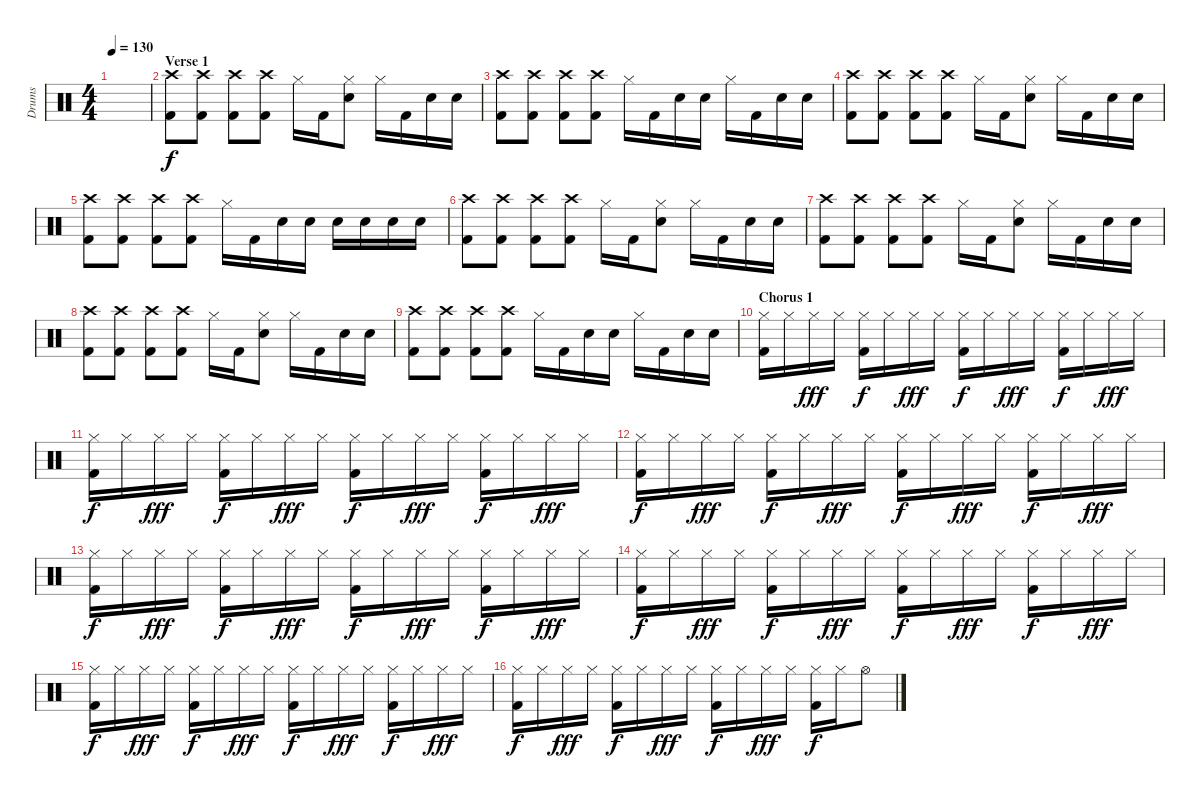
\track ("Drums" "Drums") {instrument percussion}
\staff {score}
\articulation defaults
\ts (4 4)
\tempo 130
\clef neutral
\ks c
|
\section ("" "Verse 1")
("Crash high (hit)" "Kick (hit) 2").8 ("Crash high (hit)" "Kick (hit) 2").8 ("Crash high (hit)" "Kick (hit) 2").8 ("Crash high (hit)" "Kick (hit) 2").8 "Hi-Hat (closed)".16 "Kick (hit) 2".16 ("Hi-Hat (closed)" "Electric Snare (hit)").8 "Hi-Hat (closed)".16 "Kick (hit) 2".16 "Electric Snare (hit)".16 "Electric Snare (hit)".16 |
("Crash high (hit)" "Kick (hit) 2").8 ("Crash high (hit)" "Kick (hit) 2").8 ("Crash high (hit)" "Kick (hit) 2").8 ("Crash high (hit)" "Kick (hit) 2").8 "Hi-Hat (closed)".16 "Kick (hit) 2".16 "Electric Snare (hit)".16 "Electric Snare (hit)".16 "Hi-Hat (closed)".16 "Kick (hit) 2".16 "Electric Snare (hit)".16 "Electric Snare (hit)".16 |
("Crash high (hit)" "Kick (hit) 2").8 ("Crash high (hit)" "Kick (hit) 2").8 ("Crash high (hit)" "Kick (hit) 2").8 ("Crash high (hit)" "Kick (hit) 2").8 "Hi-Hat (closed)".16 "Kick (hit) 2".16 ("Hi-Hat (closed)" "Electric Snare (hit)").8 "Hi-Hat (closed)".16 "Kick (hit) 2".16 "Electric Snare (hit)".16 "Electric Snare (hit)".16 |
("Crash high (hit)" "Kick (hit) 2").8 ("Crash high (hit)" "Kick (hit) 2").8 ("Crash high (hit)" "Kick (hit) 2").8 ("Crash high (hit)" "Kick (hit) 2").8 "Hi-Hat (closed)".16 "Kick (hit) 2".16 "Electric Snare (hit)".16 "Electric Snare (hit)".16 "Electric Snare (hit)".16 "Electric Snare (hit)".16 "Electric Snare (hit)".16 "Electric Snare (hit)".16 |
("Crash high (hit)" "Kick (hit) 2").8 ("Crash high (hit)" "Kick (hit) 2").8 ("Crash high (hit)" "Kick (hit) 2").8 ("Crash high (hit)" "Kick (hit) 2").8 "Hi-Hat (closed)".16 "Kick (hit) 2".16 ("Hi-Hat (closed)" "Electric Snare (hit)").8 "Hi-Hat (closed)".16 "Kick (hit) 2".16 "Electric Snare (hit)".16 "Electric Snare (hit)".16 |
("Crash high (hit)" "Kick (hit) 2").8 ("Crash high (hit)" "Kick (hit) 2").8 ("Crash high (hit)" "Kick (hit) 2").8 ("Crash high (hit)" "Kick (hit) 2").8 "Hi-Hat (closed)".16 "Kick (hit) 2".16 ("Hi-Hat (closed)" "Electric Snare (hit)").8 "Hi-Hat (closed)".16 "Kick (hit) 2".16 "Electric Snare (hit)".16 "Electric Snare (hit)".16 |
("Crash high (hit)" "Kick (hit) 2").8 ("Crash high (hit)" "Kick (hit) 2").8 ("Crash high (hit)" "Kick (hit) 2").8 ("Crash high (hit)" "Kick (hit) 2").8 "Hi-Hat (closed)".16 "Kick (hit) 2".16 ("Hi-Hat (closed)" "Electric Snare (hit)").8 "Hi-Hat (closed)".16 "Kick (hit) 2".16 "Electric Snare (hit)".16 "Electric Snare (hit)".16 |
("Crash high (hit)" "Kick (hit) 2").8 ("Crash high (hit)" "Kick (hit) 2").8 ("Crash high (hit)" "Kick (hit) 2").8 ("Crash high (hit)" "Kick (hit) 2").8 "Hi-Hat (closed)".16 "Kick (hit) 2".16 "Electric Snare (hit)".16 "Electric Snare (hit)".16 "Hi-Hat (closed)".16 "Kick (hit) 2".16 "Electric Snare (hit)".16 "Electric Snare (hit)".16 |
\section ("" "Chorus 1")
("Hi-Hat (closed)" "Kick (hit) 2").16 "Hi-Hat (closed)".16 "Hi-Hat (closed)".16{dy fff} "Hi-Hat (closed)".16 ("Hi-Hat (closed)" "Kick (hit) 2").16{dy f} "Hi-Hat (closed)".16 "Hi-Hat (closed)".16{dy fff} "Hi-Hat (closed)".16 ("Hi-Hat (closed)" "Kick (hit) 2").16{dy f} "Hi-Hat (closed)".16 "Hi-Hat (closed)".16{dy fff} "Hi-Hat (closed)".16 ("Hi-Hat (closed)" "Kick (hit) 2").16{dy f} "Hi-Hat (closed)".16 "Hi-Hat (closed)".16{dy fff} "Hi-Hat (closed)".16 |
("Hi-Hat (closed)" "Kick (hit) 2").16{dy f} "Hi-Hat (closed)".16 "Hi-Hat (closed)".16{dy fff} "Hi-Hat (closed)".16 ("Hi-Hat (closed)" "Kick (hit) 2").16{dy f} "Hi-Hat (closed)".16 "Hi-Hat (closed)".16{dy fff} "Hi-Hat (closed)".16 ("Hi-Hat (closed)" "Kick (hit) 2").16{dy f} "Hi-Hat (closed)".16 "Hi-Hat (closed)".16{dy fff} "Hi-Hat (closed)".16 ("Hi-Hat (closed)" "Kick (hit) 2").16{dy f} "Hi-Hat (closed)".16 "Hi-Hat (closed)".16{dy fff} "Hi-Hat (closed)".16 |
("Hi-Hat (closed)" "Kick (hit) 2").16{dy f} "Hi-Hat (closed)".16 "Hi-Hat (closed)".16{dy fff} "Hi-Hat (closed)".16 ("Hi-Hat (closed)" "Kick (hit) 2").16{dy f} "Hi-Hat (closed)".16 "Hi-Hat (closed)".16{dy fff} "Hi-Hat (closed)".16 ("Hi-Hat (closed)" "Kick (hit) 2").16{dy f} "Hi-Hat (closed)".16 "Hi-Hat (closed)".16{dy fff} "Hi-Hat (closed)".16 ("Hi-Hat (closed)" "Kick (hit) 2").16{dy f} "Hi-Hat (closed)".16 "Hi-Hat (closed)".16{dy fff} "Hi-Hat (closed)".16 |
("Hi-Hat (closed)" "Kick (hit) 2").16{dy f} "Hi-Hat (closed)".16 "Hi-Hat (closed)".16{dy fff} "Hi-Hat (closed)".16 ("Hi-Hat (closed)" "Kick (hit) 2").16{dy f} "Hi-Hat (closed)".16 "Hi-Hat (closed)".16{dy fff} "Hi-Hat (closed)".16 ("Hi-Hat (closed)" "Kick (hit) 2").16{dy f} "Hi-Hat (closed)".16 "Hi-Hat (closed)".16{dy fff} "Hi-Hat (closed)".16 ("Hi-Hat (closed)" "Kick (hit) 2").16{dy f} "Hi-Hat (closed)".16 "Hi-Hat (closed)".16{dy fff} "Hi-Hat (closed)".16 |
("Hi-Hat (closed)" "Kick (hit) 2").16{dy f} "Hi-Hat (closed)".16 "Hi-Hat (closed)".16{dy fff} "Hi-Hat (closed)".16 ("Hi-Hat (closed)" "Kick (hit) 2").16{dy f} "Hi-Hat (closed)".16 "Hi-Hat (closed)".16{dy fff} "Hi-Hat (closed)".16 ("Hi-Hat (closed)" "Kick (hit) 2").16{dy f} "Hi-Hat (closed)".16 "Hi-Hat (closed)".16{dy fff} "Hi-Hat (closed)".16 ("Hi-Hat (closed)" "Kick (hit) 2").16{dy f} "Hi-Hat (closed)".16 "Hi-Hat (closed)".16{dy fff} "Hi-Hat (closed)".16 |
("Hi-Hat (closed)" "Kick (hit) 2").16{dy f} "Hi-Hat (closed)".16 "Hi-Hat (closed)".16{dy fff} "Hi-Hat (closed)".16 ("Hi-Hat (closed)" "Kick (hit) 2").16{dy f} "Hi-Hat (closed)".16 "Hi-Hat (closed)".16{dy fff} "Hi-Hat (closed)".16 ("Hi-Hat (closed)" "Kick (hit) 2").16{dy f} "Hi-Hat (closed)".16 "Hi-Hat (closed)".16{dy fff} "Hi-Hat (closed)".16 ("Hi-Hat (closed)" "Kick (hit) 2").16{dy f} "Hi-Hat (closed)".16 "Hi-Hat (closed)".16{dy fff} "Hi-Hat (closed)".16 |
("Hi-Hat (closed)" "Kick (hit) 2").16{dy f} "Hi-Hat (closed)".16 "Hi-Hat (closed)".16{dy fff} "Hi-Hat (closed)".16 ("Hi-Hat (closed)" "Kick (hit) 2").16{dy f} "Hi-Hat (closed)".16 "Hi-Hat (closed)".16{dy fff} "Hi-Hat (closed)".16 ("Hi-Hat (closed)" "Kick (hit) 2").16{dy f} "Hi-Hat (closed)".16 "Hi-Hat (closed)".16{dy fff} "Hi-Hat (closed)".16 ("Hi-Hat (closed)" "Kick (hit) 2").16{dy f} "Hi-Hat (closed)".16 "Hi-Hat (open)".8
